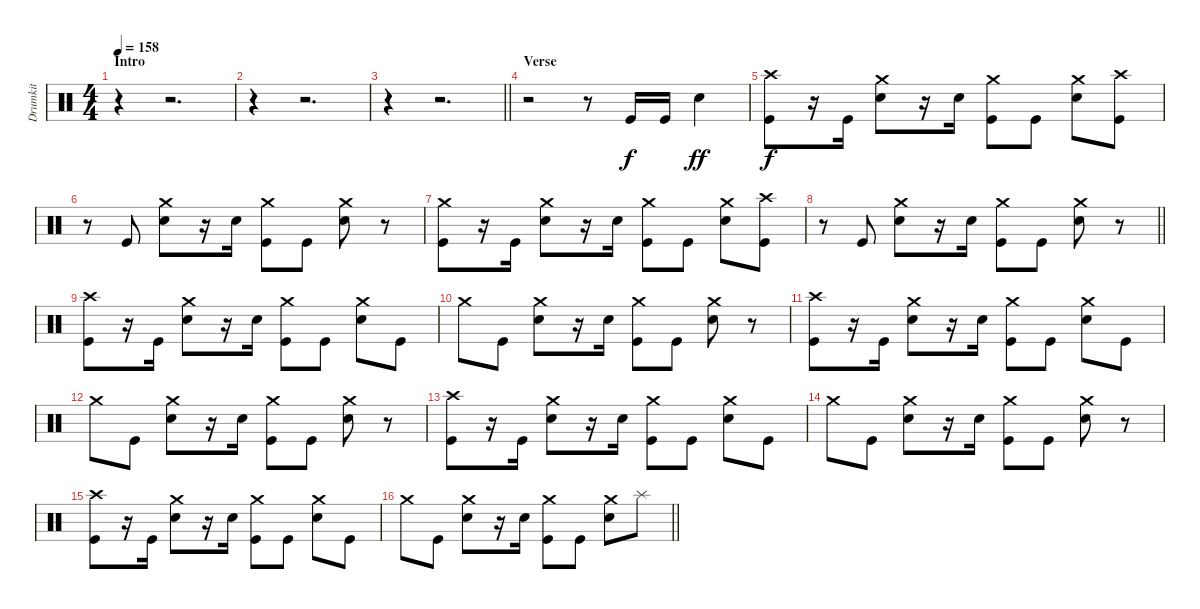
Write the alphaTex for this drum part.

\track ("Drumkit" "Drumkit") {instrument percussion}
\staff {score}
\articulation defaults
\ts (4 4)
\section ("" "Intro")
\tempo 158
\clef neutral
\ks c
r.4{dy f} r.2{d} |
r.4 r.2{d} |
\barLineRight lightlight
r.4 r.2{d} |
\section ("" "Verse")
r.2 r.8 "Kick (hit)".16 "Kick (hit)".16 "Snare (hit) 2".4{dy ff} |
("Crash high (hit)" "Kick (hit)").8{dy f} r.16 "Kick (hit)".16 ("Crash medium (hit)" "Snare (hit) 2").8 r.16 "Snare (hit) 2".16 ("Crash medium (hit)" "Kick (hit)").8 "Kick (hit)".8 ("Crash medium (hit)" "Snare (hit) 2").8 ("Crash high (hit)" "Kick (hit)").8 |
r.8 "Kick (hit)".8 ("Crash medium (hit)" "Snare (hit) 2").8 r.16 "Snare (hit) 2".16 ("Crash medium (hit)" "Kick (hit)").8 "Kick (hit)".8 ("Crash medium (hit)" "Snare (hit) 2").8 r.8 |
("Crash medium (hit)" "Kick (hit)").8 r.16 "Kick (hit)".16 ("Crash medium (hit)" "Snare (hit) 2").8 r.16 "Snare (hit) 2".16 ("Crash medium (hit)" "Kick (hit)").8 "Kick (hit)".8 ("Crash medium (hit)" "Snare (hit) 2").8 ("Crash high (hit)" "Kick (hit)").8 |
\barLineRight lightlight
r.8 "Kick (hit)".8 ("Crash medium (hit)" "Snare (hit) 2").8 r.16 "Snare (hit) 2".16 ("Crash medium (hit)" "Kick (hit)").8 "Kick (hit)".8 ("Crash medium (hit)" "Snare (hit) 2").8 r.8 |
("Crash high (hit)" "Kick (hit)").8 r.16 "Kick (hit)".16 ("Crash medium (hit)" "Snare (hit) 2").8 r.16 "Snare (hit) 2".16 ("Crash medium (hit)" "Kick (hit)").8 "Kick (hit)".8 ("Crash medium (hit)" "Snare (hit) 2").8 "Kick (hit)".8 |
"Crash medium (hit)".8 "Kick (hit)".8 ("Crash medium (hit)" "Snare (hit) 2").8 r.16 "Snare (hit) 2".16 ("Crash medium (hit)" "Kick (hit)").8 "Kick (hit)".8 ("Crash medium (hit)" "Snare (hit) 2").8 r.8 |
("Crash high (hit)" "Kick (hit)").8 r.16 "Kick (hit)".16 ("Crash medium (hit)" "Snare (hit) 2").8 r.16 "Snare (hit) 2".16 ("Crash medium (hit)" "Kick (hit)").8 "Kick (hit)".8 ("Crash medium (hit)" "Snare (hit) 2").8 "Kick (hit)".8 |
"Crash medium (hit)".8 "Kick (hit)".8 ("Crash medium (hit)" "Snare (hit) 2").8 r.16 "Snare (hit) 2".16 ("Crash medium (hit)" "Kick (hit)").8 "Kick (hit)".8 ("Crash medium (hit)" "Snare (hit) 2").8 r.8 |
("Crash high (hit)" "Kick (hit)").8 r.16 "Kick (hit)".16 ("Crash medium (hit)" "Snare (hit) 2").8 r.16 "Snare (hit) 2".16 ("Crash medium (hit)" "Kick (hit)").8 "Kick (hit)".8 ("Crash medium (hit)" "Snare (hit) 2").8 "Kick (hit)".8 |
"Crash medium (hit)".8 "Kick (hit)".8 ("Crash medium (hit)" "Snare (hit) 2").8 r.16 "Snare (hit) 2".16 ("Crash medium (hit)" "Kick (hit)").8 "Kick (hit)".8 ("Crash medium (hit)" "Snare (hit) 2").8 r.8 |
("Crash high (hit)" "Kick (hit)").8 r.16 "Kick (hit)".16 ("Crash medium (hit)" "Snare (hit) 2").8 r.16 "Snare (hit) 2".16 ("Crash medium (hit)" "Kick (hit)").8 "Kick (hit)".8 ("Crash medium (hit)" "Snare (hit) 2").8 "Kick (hit)".8 |
\barLineRight lightlight "Crash medium (hit)".8 "Kick (hit)".8
("Crash medium (hit)" "Snare (hit) 2").8 r.16 "Snare (hit) 2".16 ("Crash medium (hit)" "Kick (hit)").8 "Kick (hit)".8 ("Crash medium (hit)" "Snare (hit) 2").8 "Splash (hit)".8
